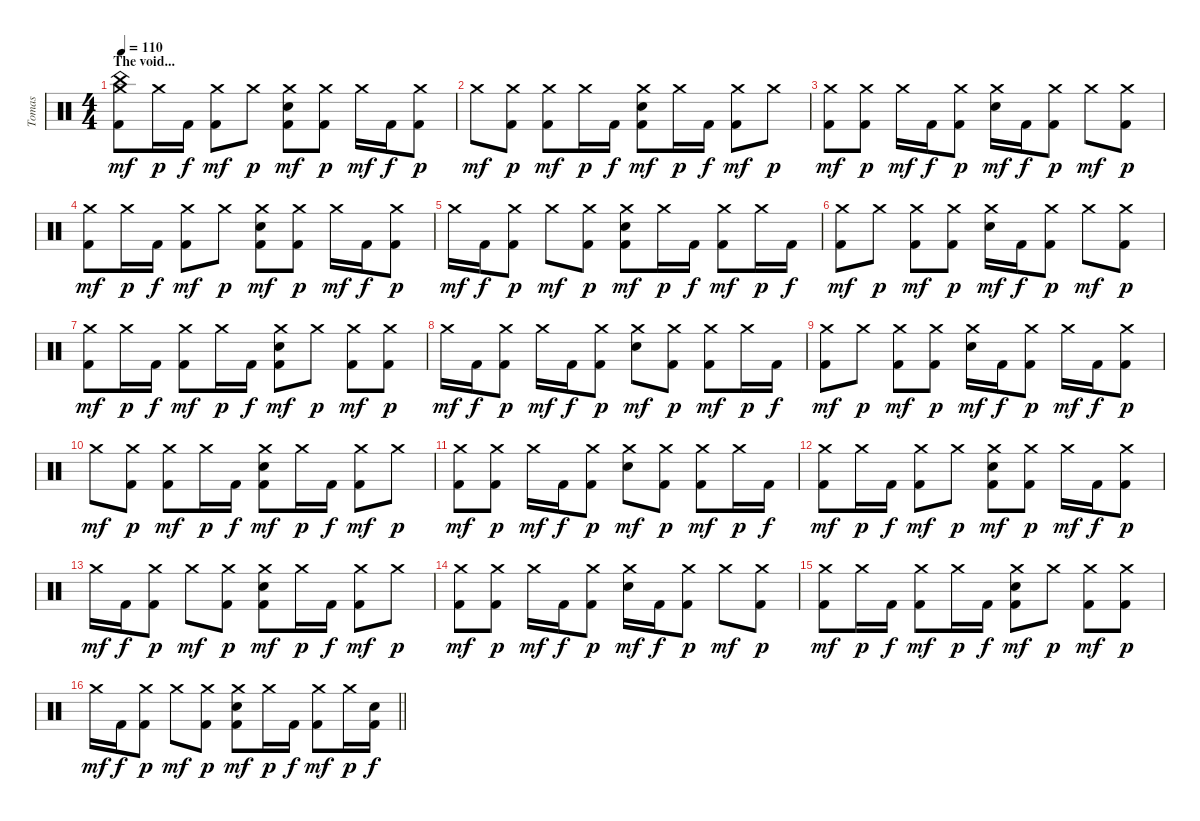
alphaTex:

\track ("Tomas" "Tomas") {instrument percussion}
\staff {score}
\articulation defaults
\ts (4 4)
\section ("" "The void...")
\tempo 110
\clef neutral
\ks c
("Crash medium (hit)" "China (hit)" "Kick (hit) 2").8{dy mf} "Crash medium (hit)".16{dy p} "Kick (hit) 2".16{dy f} ("Crash medium (hit)" "Kick (hit) 2").8{dy mf} "Crash medium (hit)".8{dy p} ("Crash medium (hit)" "Electric Snare (hit)" "Kick (hit) 2").8{dy mf} ("Crash medium (hit)" "Kick (hit) 2").8{dy p} "Crash medium (hit)".16{dy mf} "Kick (hit) 2".16{dy f} ("Crash medium (hit)" "Kick (hit) 2").8{dy p} |
"Crash medium (hit)".8{dy mf} ("Crash medium (hit)" "Kick (hit) 2").8{dy p} ("Crash medium (hit)" "Kick (hit) 2").8{dy mf} "Crash medium (hit)".16{dy p} "Kick (hit) 2".16{dy f} ("Crash medium (hit)" "Electric Snare (hit)" "Kick (hit) 2").8{dy mf} "Crash medium (hit)".16{dy p} "Kick (hit) 2".16{dy f} ("Crash medium (hit)" "Kick (hit) 2").8{dy mf} "Crash medium (hit)".8{dy p} |
("Crash medium (hit)" "Kick (hit) 2").8{dy mf} ("Crash medium (hit)" "Kick (hit) 2").8{dy p} "Crash medium (hit)".16{dy mf} "Kick (hit) 2".16{dy f} ("Crash medium (hit)" "Kick (hit) 2").8{dy p} ("Crash medium (hit)" "Electric Snare (hit)").16{dy mf} "Kick (hit) 2".16{dy f} ("Crash medium (hit)" "Kick (hit) 2").8{dy p} "Crash medium (hit)".8{dy mf} ("Crash medium (hit)" "Kick (hit) 2").8{dy p} |
("Crash medium (hit)" "Kick (hit) 2").8{dy mf} "Crash medium (hit)".16{dy p} "Kick (hit) 2".16{dy f} ("Crash medium (hit)" "Kick (hit) 2").8{dy mf} "Crash medium (hit)".8{dy p} ("Crash medium (hit)" "Electric Snare (hit)" "Kick (hit) 2").8{dy mf} ("Crash medium (hit)" "Kick (hit) 2").8{dy p} "Crash medium (hit)".16{dy mf} "Kick (hit) 2".16{dy f} ("Crash medium (hit)" "Kick (hit) 2").8{dy p} |
"Crash medium (hit)".16{dy mf} "Kick (hit) 2".16{dy f} ("Crash medium (hit)" "Kick (hit) 2").8{dy p} "Crash medium (hit)".8{dy mf} ("Crash medium (hit)" "Kick (hit) 2").8{dy p} ("Crash medium (hit)" "Electric Snare (hit)" "Kick (hit) 2").8{dy mf} "Crash medium (hit)".16{dy p} "Kick (hit) 2".16{dy f} ("Crash medium (hit)" "Kick (hit) 2").8{dy mf} "Crash medium (hit)".16{dy p} "Kick (hit) 2".16{dy f} |
("Crash medium (hit)" "Kick (hit) 2").8{dy mf} "Crash medium (hit)".8{dy p} ("Crash medium (hit)" "Kick (hit) 2").8{dy mf} ("Crash medium (hit)" "Kick (hit) 2").8{dy p} ("Crash medium (hit)" "Electric Snare (hit)").16{dy mf} "Kick (hit) 2".16{dy f} ("Crash medium (hit)" "Kick (hit) 2").8{dy p} "Crash medium (hit)".8{dy mf} ("Crash medium (hit)" "Kick (hit) 2").8{dy p} |
("Crash medium (hit)" "Kick (hit) 2").8{dy mf} "Crash medium (hit)".16{dy p} "Kick (hit) 2".16{dy f} ("Crash medium (hit)" "Kick (hit) 2").8{dy mf} "Crash medium (hit)".16{dy p} "Kick (hit) 2".16{dy f} ("Crash medium (hit)" "Electric Snare (hit)" "Kick (hit) 2").8{dy mf} "Crash medium (hit)".8{dy p} ("Crash medium (hit)" "Kick (hit) 2").8{dy mf} ("Crash medium (hit)" "Kick (hit) 2").8{dy p} |
"Crash medium (hit)".16{dy mf} "Kick (hit) 2".16{dy f} ("Crash medium (hit)" "Kick (hit) 2").8{dy p} "Crash medium (hit)".16{dy mf} "Kick (hit) 2".16{dy f} ("Crash medium (hit)" "Kick (hit) 2").8{dy p} ("Crash medium (hit)" "Electric Snare (hit)").8{dy mf} ("Crash medium (hit)" "Kick (hit) 2").8{dy p} ("Crash medium (hit)" "Kick (hit) 2").8{dy mf} "Crash medium (hit)".16{dy p} "Kick (hit) 2".16{dy f} |
("Crash medium (hit)" "Kick (hit) 2").8{dy mf} "Crash medium (hit)".8{dy p} ("Crash medium (hit)" "Kick (hit) 2").8{dy mf} ("Crash medium (hit)" "Kick (hit) 2").8{dy p} ("Crash medium (hit)" "Electric Snare (hit)").16{dy mf} "Kick (hit) 2".16{dy f} ("Crash medium (hit)" "Kick (hit) 2").8{dy p} "Crash medium (hit)".16{dy mf} "Kick (hit) 2".16{dy f} ("Crash medium (hit)" "Kick (hit) 2").8{dy p} |
"Crash medium (hit)".8{dy mf} ("Crash medium (hit)" "Kick (hit) 2").8{dy p} ("Crash medium (hit)" "Kick (hit) 2").8{dy mf} "Crash medium (hit)".16{dy p} "Kick (hit) 2".16{dy f} ("Crash medium (hit)" "Electric Snare (hit)" "Kick (hit) 2").8{dy mf} "Crash medium (hit)".16{dy p} "Kick (hit) 2".16{dy f} ("Crash medium (hit)" "Kick (hit) 2").8{dy mf} "Crash medium (hit)".8{dy p} |
("Crash medium (hit)" "Kick (hit) 2").8{dy mf} ("Crash medium (hit)" "Kick (hit) 2").8{dy p} "Crash medium (hit)".16{dy mf} "Kick (hit) 2".16{dy f} ("Crash medium (hit)" "Kick (hit) 2").8{dy p} ("Crash medium (hit)" "Electric Snare (hit)").8{dy mf} ("Crash medium (hit)" "Kick (hit) 2").8{dy p} ("Crash medium (hit)" "Kick (hit) 2").8{dy mf} "Crash medium (hit)".16{dy p} "Kick (hit) 2".16{dy f} |
("Crash medium (hit)" "Kick (hit) 2").8{dy mf} "Crash medium (hit)".16{dy p} "Kick (hit) 2".16{dy f} ("Crash medium (hit)" "Kick (hit) 2").8{dy mf} "Crash medium (hit)".8{dy p} ("Crash medium (hit)" "Electric Snare (hit)" "Kick (hit) 2").8{dy mf} ("Crash medium (hit)" "Kick (hit) 2").8{dy p} "Crash medium (hit)".16{dy mf} "Kick (hit) 2".16{dy f} ("Crash medium (hit)" "Kick (hit) 2").8{dy p} |
"Crash medium (hit)".16{dy mf} "Kick (hit) 2".16{dy f} ("Crash medium (hit)" "Kick (hit) 2").8{dy p} "Crash medium (hit)".8{dy mf} ("Crash medium (hit)" "Kick (hit) 2").8{dy p} ("Crash medium (hit)" "Electric Snare (hit)" "Kick (hit) 2").8{dy mf} "Crash medium (hit)".16{dy p} "Kick (hit) 2".16{dy f} ("Crash medium (hit)" "Kick (hit) 2").8{dy mf} "Crash medium (hit)".8{dy p} |
("Crash medium (hit)" "Kick (hit) 2").8{dy mf} ("Crash medium (hit)" "Kick (hit) 2").8{dy p} "Crash medium (hit)".16{dy mf} "Kick (hit) 2".16{dy f} ("Crash medium (hit)" "Kick (hit) 2").8{dy p} ("Crash medium (hit)" "Electric Snare (hit)").16{dy mf} "Kick (hit) 2".16{dy f} ("Crash medium (hit)" "Kick (hit) 2").8{dy p} "Crash medium (hit)".8{dy mf} ("Crash medium (hit)" "Kick (hit) 2").8{dy p} |
("Crash medium (hit)" "Kick (hit) 2").8{dy mf} "Crash medium (hit)".16{dy p} "Kick (hit) 2".16{dy f} ("Crash medium (hit)" "Kick (hit) 2").8{dy mf} "Crash medium (hit)".16{dy p} "Kick (hit) 2".16{dy f} ("Crash medium (hit)" "Electric Snare (hit)" "Kick (hit) 2").8{dy mf} "Crash medium (hit)".8{dy p} ("Crash medium (hit)" "Kick (hit) 2").8{dy mf} ("Crash medium (hit)" "Kick (hit) 2").8{dy p} |
\barLineRight lightlight "Crash medium (hit)".16{dy mf} "Kick (hit) 2".16{dy f}
("Crash medium (hit)" "Kick (hit) 2").8{dy p} "Crash medium (hit)".8{dy mf} ("Crash medium (hit)" "Kick (hit) 2").8{dy p} ("Crash medium (hit)" "Electric Snare (hit)" "Kick (hit) 2").8{dy mf} "Crash medium (hit)".16{dy p} "Kick (hit) 2".16{dy f} ("Crash medium (hit)" "Kick (hit) 2").8{dy mf} "Crash medium (hit)".16{dy p} ("Electric Snare (hit)" "Kick (hit) 2").16{dy f}
